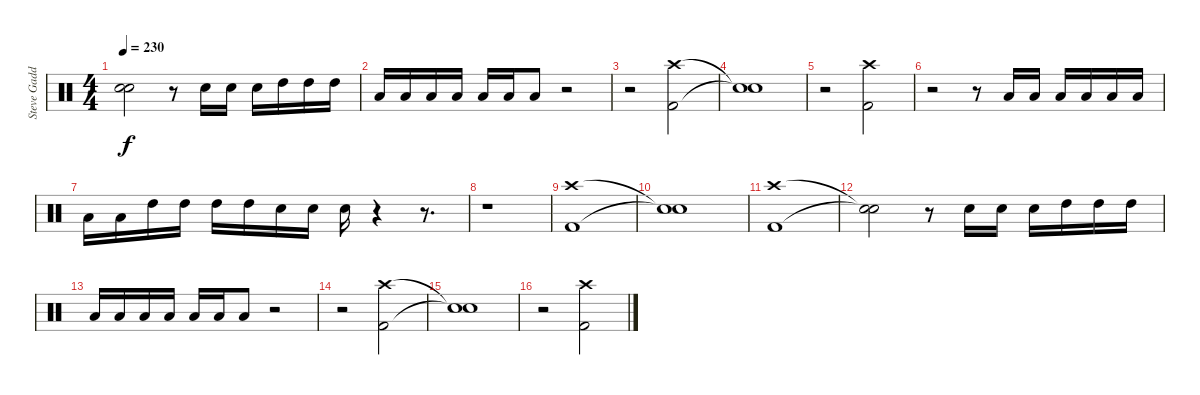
\track ("Steve Gadd" "Steve Gadd") {instrument percussion}
\staff {score}
\articulation defaults
\ts (4 4)
\tempo 230
\clef neutral
\ks c
("Snare (hit)"{t} "Snare (hit)"{t}).2{dy f} r.8 "Electric Snare (hit)".16 "Electric Snare (hit)".16 "Electric Snare (hit)".16 "High Tom (hit)".16 "High Tom (hit)".16 "High Tom (hit)".16 |
"Low Tom (hit)".16 "Low Tom (hit)".16 "Low Tom (hit)".16 "Low Floor Tom (hit)".16 "Low Floor Tom (hit)".16 "Low Floor Tom (hit)".16 "Low Floor Tom (hit)".8 r.2 |
r.2 ("Crash high (hit)" "Kick (hit) 2").2 |
("Snare (hit)"{t} "Snare (hit)"{t}).1 |
r.2 ("Crash high (hit)" "Kick (hit) 2").2 |
r.2 r.8 "Low Floor Tom (hit)".16 "Low Floor Tom (hit)".16 "Low Floor Tom (hit)".16 "Low Floor Tom (hit)".16 "Low Tom (hit)".16 "Low Tom (hit)".16 |
"Low Tom (hit)".16 "Low Tom (hit)".16 "High Tom (hit)".16 "High Tom (hit)".16 "High Tom (hit)".16 "High Tom (hit)".16 "Electric Snare (hit)".16 "Electric Snare (hit)".16 "Electric Snare (hit)".16 r.4 r.8{d} |
r.1 |
("Crash high (hit)" "Kick (hit) 2").1 |
("Snare (hit)"{t} "Snare (hit)"{t}).1 |
("Crash high (hit)" "Kick (hit) 2").1 |
("Snare (hit)"{t} "Snare (hit)"{t}).2 r.8 "Electric Snare (hit)".16 "Electric Snare (hit)".16 "Electric Snare (hit)".16 "High Tom (hit)".16 "High Tom (hit)".16 "High Tom (hit)".16 |
"Low Tom (hit)".16 "Low Tom (hit)".16 "Low Tom (hit)".16 "Low Floor Tom (hit)".16 "Low Floor Tom (hit)".16 "Low Floor Tom (hit)".16 "Low Floor Tom (hit)".8 r.2 |
r.2 ("Crash high (hit)" "Kick (hit) 2").2 |
("Snare (hit)"{t} "Snare (hit)"{t}).1 |
r.2 ("Crash high (hit)" "Kick (hit) 2").2
